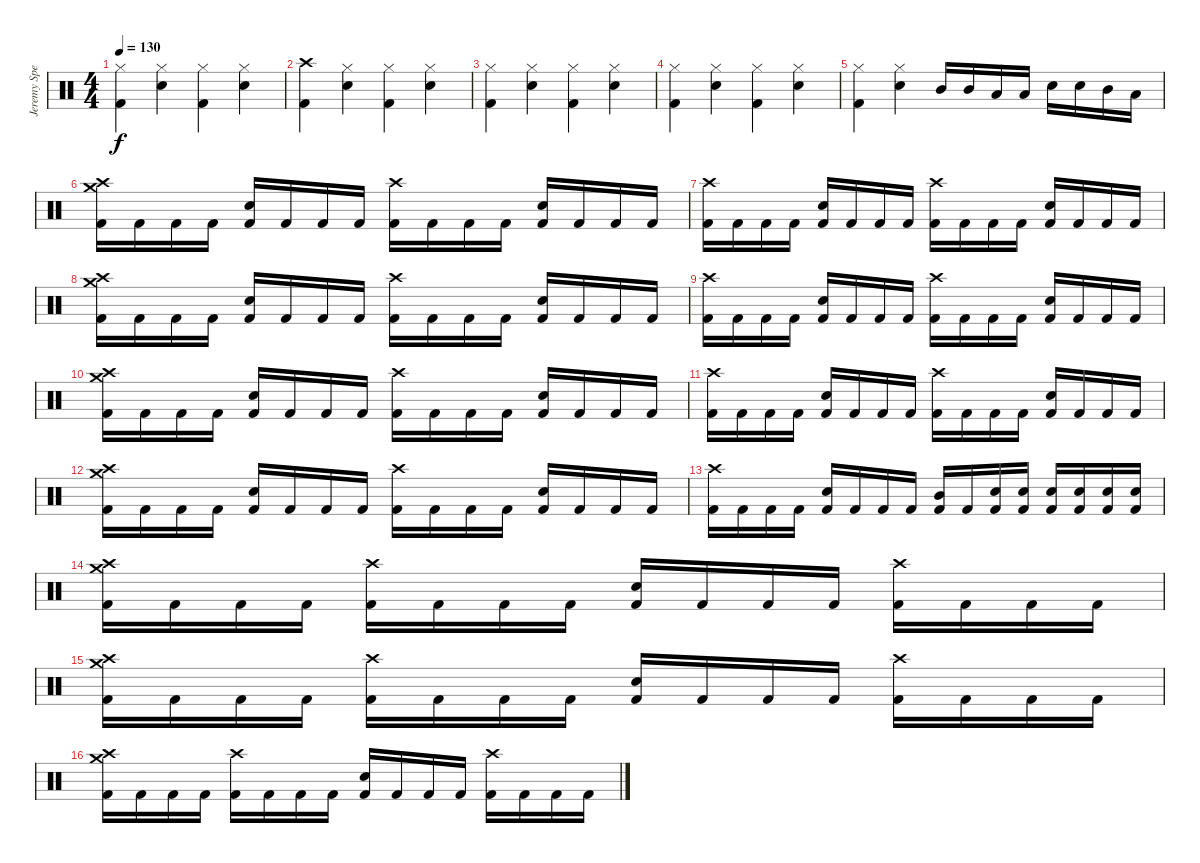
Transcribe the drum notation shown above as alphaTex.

\track ("Jeremy Spencer" "Jeremy Spe") {instrument percussion}
\staff {score}
\articulation defaults
\ts (4 4)
\tempo 130
\clef neutral
\ks c
("Hi-Hat (closed)" "Kick (hit) 2").4{dy f} ("Hi-Hat (closed)" "Snare (hit) 2").4 ("Hi-Hat (closed)" "Kick (hit) 2").4 ("Hi-Hat (closed)" "Snare (hit) 2").4 |
("Crash high (hit)" "Kick (hit) 2").4 ("Hi-Hat (closed)" "Snare (hit) 2").4 ("Hi-Hat (closed)" "Kick (hit) 2").4 ("Hi-Hat (closed)" "Snare (hit) 2").4 |
("Hi-Hat (closed)" "Kick (hit) 2").4 ("Hi-Hat (closed)" "Snare (hit) 2").4 ("Hi-Hat (closed)" "Kick (hit) 2").4 ("Hi-Hat (closed)" "Snare (hit) 2").4 |
("Hi-Hat (closed)" "Kick (hit) 2").4 ("Hi-Hat (closed)" "Snare (hit) 2").4 ("Hi-Hat (closed)" "Kick (hit) 2").4 ("Hi-Hat (closed)" "Snare (hit) 2").4 |
("Hi-Hat (closed)" "Kick (hit) 2").4 ("Hi-Hat (closed)" "Snare (hit) 2").4 "Mid Tom (hit)".16 "Mid Tom (hit)".16 "Low Tom (hit)".16 "Low Tom (hit)".16 "Snare (hit) 2".16 "Snare (hit) 2".16 "Mid Tom (hit)".16 "Low Tom (hit)".16 |
("Crash high (hit)" "Crash medium (hit)" "Kick (hit) 2").16 "Kick (hit) 2".16 "Kick (hit) 2".16 "Kick (hit) 2".16 ("Snare (hit) 2" "Kick (hit) 2").16 "Kick (hit) 2".16 "Kick (hit) 2".16 "Kick (hit) 2".16 ("Crash high (hit)" "Kick (hit) 2").16 "Kick (hit) 2".16 "Kick (hit) 2".16 "Kick (hit) 2".16 ("Snare (hit) 2" "Kick (hit) 2").16 "Kick (hit) 2".16 "Kick (hit) 2".16 "Kick (hit) 2".16 |
("Crash high (hit)" "Kick (hit) 2").16 "Kick (hit) 2".16 "Kick (hit) 2".16 "Kick (hit) 2".16 ("Snare (hit) 2" "Kick (hit) 2").16 "Kick (hit) 2".16 "Kick (hit) 2".16 "Kick (hit) 2".16 ("Crash high (hit)" "Kick (hit) 2").16 "Kick (hit) 2".16 "Kick (hit) 2".16 "Kick (hit) 2".16 ("Snare (hit) 2" "Kick (hit) 2").16 "Kick (hit) 2".16 "Kick (hit) 2".16 "Kick (hit) 2".16 |
("Crash high (hit)" "Crash medium (hit)" "Kick (hit) 2").16 "Kick (hit) 2".16 "Kick (hit) 2".16 "Kick (hit) 2".16 ("Snare (hit) 2" "Kick (hit) 2").16 "Kick (hit) 2".16 "Kick (hit) 2".16 "Kick (hit) 2".16 ("Crash high (hit)" "Kick (hit) 2").16 "Kick (hit) 2".16 "Kick (hit) 2".16 "Kick (hit) 2".16 ("Snare (hit) 2" "Kick (hit) 2").16 "Kick (hit) 2".16 "Kick (hit) 2".16 "Kick (hit) 2".16 |
("Crash high (hit)" "Kick (hit) 2").16 "Kick (hit) 2".16 "Kick (hit) 2".16 "Kick (hit) 2".16 ("Snare (hit) 2" "Kick (hit) 2").16 "Kick (hit) 2".16 "Kick (hit) 2".16 "Kick (hit) 2".16 ("Crash high (hit)" "Kick (hit) 2").16 "Kick (hit) 2".16 "Kick (hit) 2".16 "Kick (hit) 2".16 ("Snare (hit) 2" "Kick (hit) 2").16 "Kick (hit) 2".16 "Kick (hit) 2".16 "Kick (hit) 2".16 |
("Crash high (hit)" "Crash medium (hit)" "Kick (hit) 2").16 "Kick (hit) 2".16 "Kick (hit) 2".16 "Kick (hit) 2".16 ("Snare (hit) 2" "Kick (hit) 2").16 "Kick (hit) 2".16 "Kick (hit) 2".16 "Kick (hit) 2".16 ("Crash high (hit)" "Kick (hit) 2").16 "Kick (hit) 2".16 "Kick (hit) 2".16 "Kick (hit) 2".16 ("Snare (hit) 2" "Kick (hit) 2").16 "Kick (hit) 2".16 "Kick (hit) 2".16 "Kick (hit) 2".16 |
("Crash high (hit)" "Kick (hit) 2").16 "Kick (hit) 2".16 "Kick (hit) 2".16 "Kick (hit) 2".16 ("Snare (hit) 2" "Kick (hit) 2").16 "Kick (hit) 2".16 "Kick (hit) 2".16 "Kick (hit) 2".16 ("Crash high (hit)" "Kick (hit) 2").16 "Kick (hit) 2".16 "Kick (hit) 2".16 "Kick (hit) 2".16 ("Snare (hit) 2" "Kick (hit) 2").16 "Kick (hit) 2".16 "Kick (hit) 2".16 "Kick (hit) 2".16 |
("Crash high (hit)" "Crash medium (hit)" "Kick (hit) 2").16 "Kick (hit) 2".16 "Kick (hit) 2".16 "Kick (hit) 2".16 ("Snare (hit) 2" "Kick (hit) 2").16 "Kick (hit) 2".16 "Kick (hit) 2".16 "Kick (hit) 2".16 ("Crash high (hit)" "Kick (hit) 2").16 "Kick (hit) 2".16 "Kick (hit) 2".16 "Kick (hit) 2".16 ("Snare (hit) 2" "Kick (hit) 2").16 "Kick (hit) 2".16 "Kick (hit) 2".16 "Kick (hit) 2".16 |
("Crash high (hit)" "Kick (hit) 2").16 "Kick (hit) 2".16 "Kick (hit) 2".16 "Kick (hit) 2".16 ("Snare (hit) 2" "Kick (hit) 2").16 "Kick (hit) 2".16 "Kick (hit) 2".16 "Kick (hit) 2".16 ("Mid Tom (hit)" "Kick (hit) 2").16 "Kick (hit) 2".16 ("Snare (hit) 2" "Kick (hit) 2").16 ("Snare (hit) 2" "Kick (hit) 2").16 ("Snare (hit) 2" "Kick (hit) 2").16 ("Snare (hit) 2" "Kick (hit) 2").16 ("Snare (hit) 2" "Kick (hit) 2").16 ("Snare (hit) 2" "Kick (hit) 2").16 |
("Crash high (hit)" "Crash medium (hit)" "Kick (hit) 2").16 "Kick (hit) 2".16 "Kick (hit) 2".16 "Kick (hit) 2".16 ("Crash high (hit)" "Kick (hit) 2").16 "Kick (hit) 2".16 "Kick (hit) 2".16 "Kick (hit) 2".16 ("Snare (hit) 2" "Kick (hit) 2").16 "Kick (hit) 2".16 "Kick (hit) 2".16 "Kick (hit) 2".16 ("Crash high (hit)" "Kick (hit) 2").16 "Kick (hit) 2".16 "Kick (hit) 2".16 "Kick (hit) 2".16 |
("Crash high (hit)" "Crash medium (hit)" "Kick (hit) 2").16 "Kick (hit) 2".16 "Kick (hit) 2".16 "Kick (hit) 2".16 ("Crash high (hit)" "Kick (hit) 2").16 "Kick (hit) 2".16 "Kick (hit) 2".16 "Kick (hit) 2".16 ("Snare (hit) 2" "Kick (hit) 2").16 "Kick (hit) 2".16 "Kick (hit) 2".16 "Kick (hit) 2".16 ("Crash high (hit)" "Kick (hit) 2").16 "Kick (hit) 2".16 "Kick (hit) 2".16 "Kick (hit) 2".16 |
("Crash high (hit)" "Crash medium (hit)" "Kick (hit) 2").16 "Kick (hit) 2".16 "Kick (hit) 2".16 "Kick (hit) 2".16 ("Crash high (hit)" "Kick (hit) 2").16 "Kick (hit) 2".16 "Kick (hit) 2".16 "Kick (hit) 2".16 ("Snare (hit) 2" "Kick (hit) 2").16 "Kick (hit) 2".16 "Kick (hit) 2".16 "Kick (hit) 2".16 ("Crash high (hit)" "Kick (hit) 2").16 "Kick (hit) 2".16 "Kick (hit) 2".16 "Kick (hit) 2".16
